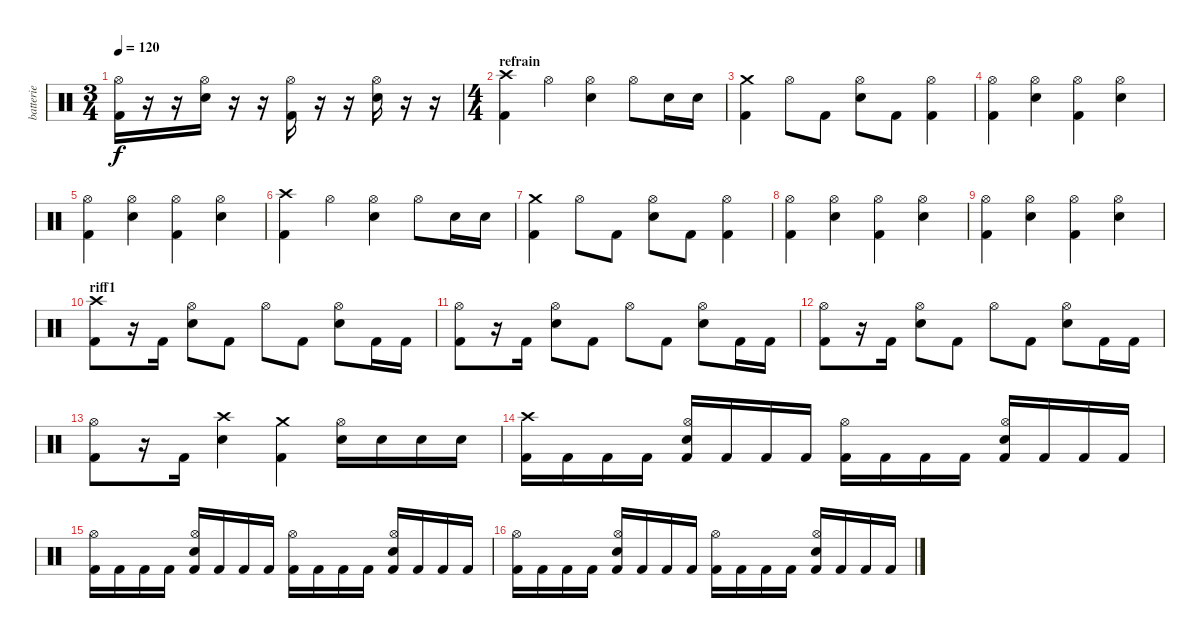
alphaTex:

\track ("batterie" "batterie") {instrument percussion}
\staff {score}
\articulation defaults
\ts (3 4)
\tempo 120
\clef neutral
\ks c
("Kick (hit) 2" "Hi-Hat (open)").16{dy f} r.16 r.16 ("Snare (hit) 2" "Hi-Hat (open)").16 r.16 r.16 ("Kick (hit) 2" "Hi-Hat (open)").16 r.16 r.16 ("Snare (hit) 2" "Hi-Hat (open)").16 r.16 r.16 |
\ts (4 4)
\section ("" "refrain")
("Crash high (hit)" "Kick (hit) 2").4 "Hi-Hat (open)".4 ("Snare (hit) 2" "Hi-Hat (open)").4 "Hi-Hat (open)".8 "Snare (hit) 2".16 "Snare (hit) 2".16 |
("Crash medium (hit)" "Kick (hit) 2").4 "Hi-Hat (open)".8 "Kick (hit) 2".8 ("Snare (hit) 2" "Hi-Hat (open)").8 "Kick (hit) 2".8 ("Kick (hit) 2" "Hi-Hat (open)").4 |
("Kick (hit) 2" "Hi-Hat (open)").4 ("Snare (hit) 2" "Hi-Hat (open)").4 ("Kick (hit) 2" "Hi-Hat (open)").4 ("Snare (hit) 2" "Hi-Hat (open)").4 |
("Kick (hit) 2" "Hi-Hat (open)").4 ("Snare (hit) 2" "Hi-Hat (open)").4 ("Kick (hit) 2" "Hi-Hat (open)").4 ("Snare (hit) 2" "Hi-Hat (open)").4 |
("Crash high (hit)" "Kick (hit) 2").4 "Hi-Hat (open)".4 ("Snare (hit) 2" "Hi-Hat (open)").4 "Hi-Hat (open)".8 "Snare (hit) 2".16 "Snare (hit) 2".16 |
("Crash medium (hit)" "Kick (hit) 2").4 "Hi-Hat (open)".8 "Kick (hit) 2".8 ("Snare (hit) 2" "Hi-Hat (open)").8 "Kick (hit) 2".8 ("Kick (hit) 2" "Hi-Hat (open)").4 |
("Kick (hit) 2" "Hi-Hat (open)").4 ("Snare (hit) 2" "Hi-Hat (open)").4 ("Kick (hit) 2" "Hi-Hat (open)").4 ("Snare (hit) 2" "Hi-Hat (open)").4 |
("Kick (hit) 2" "Hi-Hat (open)").4 ("Snare (hit) 2" "Hi-Hat (open)").4 ("Kick (hit) 2" "Hi-Hat (open)").4 ("Snare (hit) 2" "Hi-Hat (open)").4 |
\section ("" "riff1")
("Crash high (hit)" "Kick (hit) 2").8 r.16 "Kick (hit) 2".16 ("Snare (hit) 2" "Hi-Hat (open)").8 "Kick (hit) 2".8 "Hi-Hat (open)".8 "Kick (hit) 2".8 ("Snare (hit) 2" "Hi-Hat (open)").8 "Kick (hit) 2".16 "Kick (hit) 2".16 |
("Kick (hit) 2" "Hi-Hat (open)").8 r.16 "Kick (hit) 2".16 ("Snare (hit) 2" "Hi-Hat (open)").8 "Kick (hit) 2".8 "Hi-Hat (open)".8 "Kick (hit) 2".8 ("Snare (hit) 2" "Hi-Hat (open)").8 "Kick (hit) 2".16 "Kick (hit) 2".16 |
("Kick (hit) 2" "Hi-Hat (open)").8 r.16 "Kick (hit) 2".16 ("Snare (hit) 2" "Hi-Hat (open)").8 "Kick (hit) 2".8 "Hi-Hat (open)".8 "Kick (hit) 2".8 ("Snare (hit) 2" "Hi-Hat (open)").8 "Kick (hit) 2".16 "Kick (hit) 2".16 |
("Kick (hit) 2" "Hi-Hat (open)").8 r.16 "Kick (hit) 2".16 ("Crash high (hit)" "Snare (hit) 2").4 ("Crash medium (hit)" "Kick (hit) 2").4 ("Snare (hit) 2" "Hi-Hat (open)").16 "Snare (hit) 2".16 "Snare (hit) 2".16 "Snare (hit) 2".16 |
("Crash high (hit)" "Kick (hit) 2").16 "Kick (hit) 2".16 "Kick (hit) 2".16 "Kick (hit) 2".16 ("Snare (hit) 2" "Kick (hit) 2" "Hi-Hat (open)").16 "Kick (hit) 2".16 "Kick (hit) 2".16 "Kick (hit) 2".16 ("Kick (hit) 2" "Hi-Hat (open)").16 "Kick (hit) 2".16 "Kick (hit) 2".16 "Kick (hit) 2".16 ("Snare (hit) 2" "Kick (hit) 2" "Hi-Hat (open)").16 "Kick (hit) 2".16 "Kick (hit) 2".16 "Kick (hit) 2".16 |
("Kick (hit) 2" "Hi-Hat (open)").16 "Kick (hit) 2".16 "Kick (hit) 2".16 "Kick (hit) 2".16 ("Snare (hit) 2" "Kick (hit) 2" "Hi-Hat (open)").16 "Kick (hit) 2".16 "Kick (hit) 2".16 "Kick (hit) 2".16 ("Kick (hit) 2" "Hi-Hat (open)").16 "Kick (hit) 2".16 "Kick (hit) 2".16 "Kick (hit) 2".16 ("Snare (hit) 2" "Kick (hit) 2" "Hi-Hat (open)").16 "Kick (hit) 2".16 "Kick (hit) 2".16 "Kick (hit) 2".16 |
("Kick (hit) 2" "Hi-Hat (open)").16 "Kick (hit) 2".16 "Kick (hit) 2".16 "Kick (hit) 2".16 ("Snare (hit) 2" "Kick (hit) 2" "Hi-Hat (open)").16 "Kick (hit) 2".16 "Kick (hit) 2".16 "Kick (hit) 2".16 ("Kick (hit) 2" "Hi-Hat (open)").16 "Kick (hit) 2".16 "Kick (hit) 2".16 "Kick (hit) 2".16 ("Snare (hit) 2" "Kick (hit) 2" "Hi-Hat (open)").16 "Kick (hit) 2".16 "Kick (hit) 2".16 "Kick (hit) 2".16
